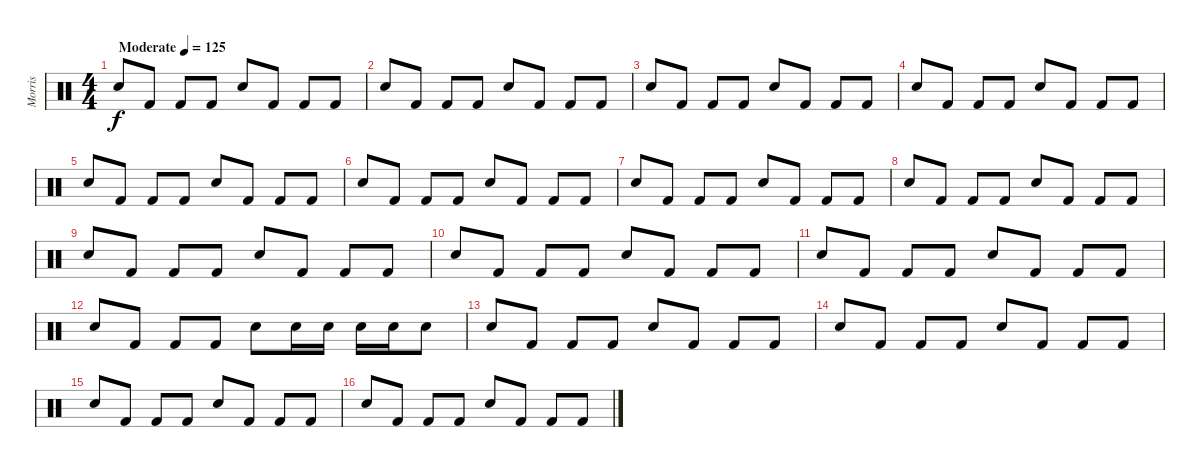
\track ("Morris" "Morris") {instrument percussion}
\staff {score}
\articulation defaults
\ts (4 4)
\tempo (125 "Moderate")
\clef neutral
\ks c "Electric Snare (hit)".8{dy f} "Kick (hit) 2".8 "Kick (hit) 2".8 "Kick (hit) 2".8 "Electric Snare (hit)".8 "Kick (hit) 2".8 "Kick (hit) 2".8 "Kick (hit) 2".8
|
"Electric Snare (hit)".8 "Kick (hit) 2".8 "Kick (hit) 2".8 "Kick (hit) 2".8 "Electric Snare (hit)".8 "Kick (hit) 2".8 "Kick (hit) 2".8 "Kick (hit) 2".8 |
"Electric Snare (hit)".8 "Kick (hit) 2".8 "Kick (hit) 2".8 "Kick (hit) 2".8 "Electric Snare (hit)".8 "Kick (hit) 2".8 "Kick (hit) 2".8 "Kick (hit) 2".8 |
"Electric Snare (hit)".8 "Kick (hit) 2".8 "Kick (hit) 2".8 "Kick (hit) 2".8 "Electric Snare (hit)".8 "Kick (hit) 2".8 "Kick (hit) 2".8 "Kick (hit) 2".8 |
"Electric Snare (hit)".8 "Kick (hit) 2".8 "Kick (hit) 2".8 "Kick (hit) 2".8 "Electric Snare (hit)".8 "Kick (hit) 2".8 "Kick (hit) 2".8 "Kick (hit) 2".8 |
"Electric Snare (hit)".8 "Kick (hit) 2".8 "Kick (hit) 2".8 "Kick (hit) 2".8 "Electric Snare (hit)".8 "Kick (hit) 2".8 "Kick (hit) 2".8 "Kick (hit) 2".8 |
"Electric Snare (hit)".8 "Kick (hit) 2".8 "Kick (hit) 2".8 "Kick (hit) 2".8 "Electric Snare (hit)".8 "Kick (hit) 2".8 "Kick (hit) 2".8 "Kick (hit) 2".8 |
"Electric Snare (hit)".8 "Kick (hit) 2".8 "Kick (hit) 2".8 "Kick (hit) 2".8 "Electric Snare (hit)".8 "Kick (hit) 2".8 "Kick (hit) 2".8 "Kick (hit) 2".8 |
"Electric Snare (hit)".8 "Kick (hit) 2".8 "Kick (hit) 2".8 "Kick (hit) 2".8 "Electric Snare (hit)".8 "Kick (hit) 2".8 "Kick (hit) 2".8 "Kick (hit) 2".8 |
"Electric Snare (hit)".8 "Kick (hit) 2".8 "Kick (hit) 2".8 "Kick (hit) 2".8 "Electric Snare (hit)".8 "Kick (hit) 2".8 "Kick (hit) 2".8 "Kick (hit) 2".8 |
"Electric Snare (hit)".8 "Kick (hit) 2".8 "Kick (hit) 2".8 "Kick (hit) 2".8 "Electric Snare (hit)".8 "Kick (hit) 2".8 "Kick (hit) 2".8 "Kick (hit) 2".8 |
"Electric Snare (hit)".8 "Kick (hit) 2".8 "Kick (hit) 2".8 "Kick (hit) 2".8 "Electric Snare (hit)".8 "Electric Snare (hit)".16 "Electric Snare (hit)".16 "Electric Snare (hit)".16 "Electric Snare (hit)".16 "Electric Snare (hit)".8 |
"Electric Snare (hit)".8 "Kick (hit) 2".8 "Kick (hit) 2".8 "Kick (hit) 2".8 "Electric Snare (hit)".8 "Kick (hit) 2".8 "Kick (hit) 2".8 "Kick (hit) 2".8 |
"Electric Snare (hit)".8 "Kick (hit) 2".8 "Kick (hit) 2".8 "Kick (hit) 2".8 "Electric Snare (hit)".8 "Kick (hit) 2".8 "Kick (hit) 2".8 "Kick (hit) 2".8 |
"Electric Snare (hit)".8 "Kick (hit) 2".8 "Kick (hit) 2".8 "Kick (hit) 2".8 "Electric Snare (hit)".8 "Kick (hit) 2".8 "Kick (hit) 2".8 "Kick (hit) 2".8 |
"Electric Snare (hit)".8 "Kick (hit) 2".8 "Kick (hit) 2".8 "Kick (hit) 2".8 "Electric Snare (hit)".8 "Kick (hit) 2".8 "Kick (hit) 2".8 "Kick (hit) 2".8
